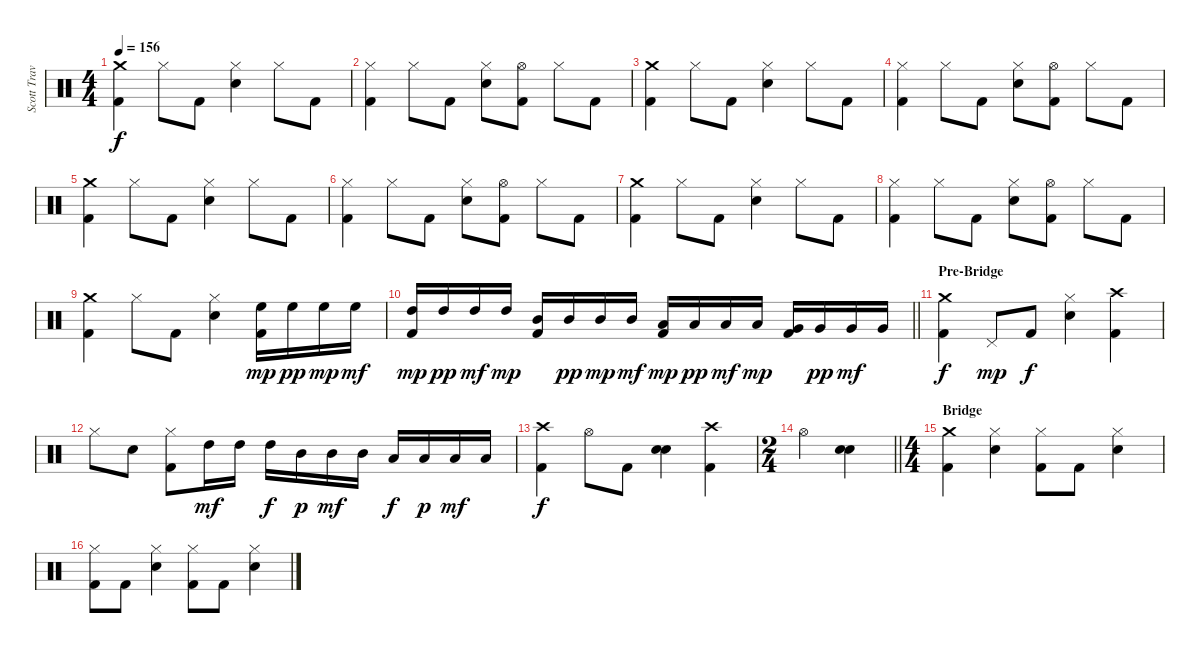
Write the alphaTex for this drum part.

\track ("Scott Travis" "Scott Trav") {instrument percussion}
\staff {score}
\articulation defaults
\ts (4 4)
\tempo 156
\clef neutral
\ks c
("Crash medium (hit)" "Kick (hit) 2").4{dy f} "Hi-Hat (closed)".8 "Kick (hit) 2".8 ("Hi-Hat (closed)" "Snare (hit) 2").4 "Hi-Hat (closed)".8 "Kick (hit) 2".8 |
("Hi-Hat (closed)" "Kick (hit) 2").4 "Hi-Hat (closed)".8 "Kick (hit) 2".8 ("Hi-Hat (closed)" "Snare (hit) 2").8 ("Hi-Hat (open)" "Kick (hit) 2").8 "Hi-Hat (closed)".8 "Kick (hit) 2".8 |
("Crash medium (hit)" "Kick (hit) 2").4 "Hi-Hat (closed)".8 "Kick (hit) 2".8 ("Hi-Hat (closed)" "Snare (hit) 2").4 "Hi-Hat (closed)".8 "Kick (hit) 2".8 |
("Hi-Hat (closed)" "Kick (hit) 2").4 "Hi-Hat (closed)".8 "Kick (hit) 2".8 ("Hi-Hat (closed)" "Snare (hit) 2").8 ("Hi-Hat (open)" "Kick (hit) 2").8 "Hi-Hat (closed)".8 "Kick (hit) 2".8 |
("Crash medium (hit)" "Kick (hit) 2").4 "Hi-Hat (closed)".8 "Kick (hit) 2".8 ("Hi-Hat (closed)" "Snare (hit) 2").4 "Hi-Hat (closed)".8 "Kick (hit) 2".8 |
("Hi-Hat (closed)" "Kick (hit) 2").4 "Hi-Hat (closed)".8 "Kick (hit) 2".8 ("Hi-Hat (closed)" "Snare (hit) 2").8 ("Hi-Hat (open)" "Kick (hit) 2").8 "Hi-Hat (closed)".8 "Kick (hit) 2".8 |
("Crash medium (hit)" "Kick (hit) 2").4 "Hi-Hat (closed)".8 "Kick (hit) 2".8 ("Hi-Hat (closed)" "Snare (hit) 2").4 "Hi-Hat (closed)".8 "Kick (hit) 2".8 |
("Hi-Hat (closed)" "Kick (hit) 2").4 "Hi-Hat (closed)".8 "Kick (hit) 2".8 ("Hi-Hat (closed)" "Snare (hit) 2").8 ("Hi-Hat (open)" "Kick (hit) 2").8 "Hi-Hat (closed)".8 "Kick (hit) 2".8 |
("Crash medium (hit)" "Kick (hit) 2").4 "Hi-Hat (closed)".8 "Kick (hit) 2".8 ("Hi-Hat (closed)" "Snare (hit) 2").4 ("High Floor Tom (hit)" "Kick (hit) 2").16{dy mp} "High Floor Tom (hit)".16{dy pp} "High Floor Tom (hit)".16{dy mp} "High Floor Tom (hit)".16{dy mf} |
\barLineRight lightlight
("High Tom (hit)" "Kick (hit) 2").16{dy mp} "High Tom (hit)".16{dy pp} "High Tom (hit)".16{dy mf} "High Tom (hit)".16{dy mp} ("Mid Tom (hit)" "Kick (hit) 2").16 "Mid Tom (hit)".16{dy pp} "Mid Tom (hit)".16{dy mp} "Mid Tom (hit)".16{dy mf} ("Kick (hit) 2" "Low Tom (hit)").16{dy mp} "Low Tom (hit)".16{dy pp} "Low Tom (hit)".16{dy mf} "Low Tom (hit)".16{dy mp} ("Kick (hit) 2" "Very Low Tom (hit)").16 "Very Low Tom (hit)".16{dy pp} "Very Low Tom (hit)".16{dy mf} "Very Low Tom (hit)".16 |
\section ("" "Pre-Bridge")
("Crash medium (hit)" "Kick (hit) 2").4{dy f} "Pedal Hi-Hat (hit)".8{dy mp} "Kick (hit) 2".8{dy f} ("Hi-Hat (closed)" "Snare (hit) 2").4 ("Crash high (hit)" "Kick (hit) 2").4 |
"Hi-Hat (closed)".8 "Snare (hit) 2".8 ("Hi-Hat (closed)" "Kick (hit) 2").8 "High Tom (hit)".16{dy mf} "High Tom (hit)".16 "High Tom (hit)".16{dy f} "Mid Tom (hit)".16{dy p} "Mid Tom (hit)".16{dy mf} "Mid Tom (hit)".16 "Low Tom (hit)".16{dy f} "Low Tom (hit)".16{dy p} "Low Tom (hit)".16{dy mf} "Low Tom (hit)".16 |
("Crash high (hit)" "Kick (hit) 2").4{dy f} "Hi-Hat (open)".8 "Kick (hit) 2".8 ("Snare (hit) 2" "Snare (hit) 2").4 ("Crash high (hit)" "Kick (hit) 2").4 |
\ts (2 4)
\barLineRight lightlight "Hi-Hat (open)".4
("Snare (hit) 2" "Snare (hit) 2").4 |
\ts (4 4)
\section ("" "Bridge")
("Crash medium (hit)" "Kick (hit) 2").4 ("Hi-Hat (closed)" "Snare (hit) 2").4 ("Hi-Hat (closed)" "Kick (hit) 2").8 "Kick (hit) 2".8 ("Hi-Hat (closed)" "Snare (hit) 2").4 |
("Hi-Hat (closed)" "Kick (hit) 2").8 "Kick (hit) 2".8 ("Snare (hit) 2" "Hi-Hat (closed)").4 ("Kick (hit) 2" "Hi-Hat (closed)").8 "Kick (hit) 2".8 ("Hi-Hat (closed)" "Snare (hit) 2").4
